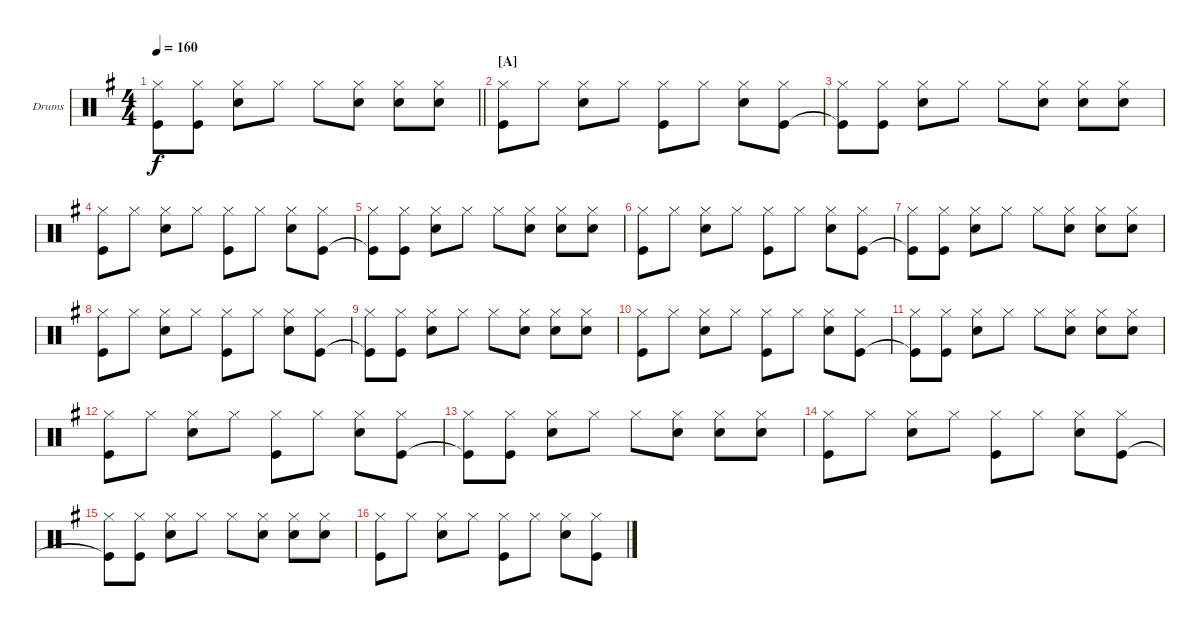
\bracketExtendMode groupsimilarinstruments
\firstSystemTrackNameOrientation horizontal
\otherSystemsTrackNameOrientation horizontal
\track ("Fabrizio Moretti" "Drums") {instrument percussion}
\staff {score}
\articulation defaults
\ts (4 4)
\tempo 160
\clef neutral
\barLineRight lightlight
\ks g
("Hi-Hat (closed)" "Kick (hit)"{t}).8{dy f} ("Hi-Hat (closed)" "Kick (hit)").8 ("Hi-Hat (closed)" "Snare (hit) 2").8 "Hi-Hat (closed)".8 "Hi-Hat (closed)".8 ("Hi-Hat (closed)" "Snare (hit) 2").8 ("Hi-Hat (closed)" "Snare (hit) 2").8 ("Hi-Hat (closed)" "Snare (hit) 2").8 |
\section ("A" "")
("Hi-Hat (closed)" "Kick (hit)").8 "Hi-Hat (closed)".8 ("Hi-Hat (closed)" "Snare (hit) 2").8 "Hi-Hat (closed)".8 ("Hi-Hat (closed)" "Kick (hit)").8 "Hi-Hat (closed)".8 ("Hi-Hat (closed)" "Snare (hit) 2").8 ("Hi-Hat (closed)" "Kick (hit)").8 |
("Hi-Hat (closed)" "Kick (hit)"{t}).8 ("Hi-Hat (closed)" "Kick (hit)").8 ("Hi-Hat (closed)" "Snare (hit) 2").8 "Hi-Hat (closed)".8 "Hi-Hat (closed)".8 ("Hi-Hat (closed)" "Snare (hit) 2").8 ("Hi-Hat (closed)" "Snare (hit) 2").8 ("Hi-Hat (closed)" "Snare (hit) 2").8 |
("Hi-Hat (closed)" "Kick (hit)").8 "Hi-Hat (closed)".8 ("Hi-Hat (closed)" "Snare (hit) 2").8 "Hi-Hat (closed)".8 ("Hi-Hat (closed)" "Kick (hit)").8 "Hi-Hat (closed)".8 ("Hi-Hat (closed)" "Snare (hit) 2").8 ("Hi-Hat (closed)" "Kick (hit)").8 |
("Hi-Hat (closed)" "Kick (hit)"{t}).8 ("Hi-Hat (closed)" "Kick (hit)").8 ("Hi-Hat (closed)" "Snare (hit) 2").8 "Hi-Hat (closed)".8 "Hi-Hat (closed)".8 ("Hi-Hat (closed)" "Snare (hit) 2").8 ("Hi-Hat (closed)" "Snare (hit) 2").8 ("Hi-Hat (closed)" "Snare (hit) 2").8 |
("Hi-Hat (closed)" "Kick (hit)").8 "Hi-Hat (closed)".8 ("Hi-Hat (closed)" "Snare (hit) 2").8 "Hi-Hat (closed)".8 ("Hi-Hat (closed)" "Kick (hit)").8 "Hi-Hat (closed)".8 ("Hi-Hat (closed)" "Snare (hit) 2").8 ("Hi-Hat (closed)" "Kick (hit)").8 |
("Hi-Hat (closed)" "Kick (hit)"{t}).8 ("Hi-Hat (closed)" "Kick (hit)").8 ("Hi-Hat (closed)" "Snare (hit) 2").8 "Hi-Hat (closed)".8 "Hi-Hat (closed)".8 ("Hi-Hat (closed)" "Snare (hit) 2").8 ("Hi-Hat (closed)" "Snare (hit) 2").8 ("Hi-Hat (closed)" "Snare (hit) 2").8 |
("Hi-Hat (closed)" "Kick (hit)").8 "Hi-Hat (closed)".8 ("Hi-Hat (closed)" "Snare (hit) 2").8 "Hi-Hat (closed)".8 ("Hi-Hat (closed)" "Kick (hit)").8 "Hi-Hat (closed)".8 ("Hi-Hat (closed)" "Snare (hit) 2").8 ("Hi-Hat (closed)" "Kick (hit)").8 |
("Hi-Hat (closed)" "Kick (hit)"{t}).8 ("Hi-Hat (closed)" "Kick (hit)").8 ("Hi-Hat (closed)" "Snare (hit) 2").8 "Hi-Hat (closed)".8 "Hi-Hat (closed)".8 ("Hi-Hat (closed)" "Snare (hit) 2").8 ("Hi-Hat (closed)" "Snare (hit) 2").8 ("Hi-Hat (closed)" "Snare (hit) 2").8 |
("Hi-Hat (closed)" "Kick (hit)").8 "Hi-Hat (closed)".8 ("Hi-Hat (closed)" "Snare (hit) 2").8 "Hi-Hat (closed)".8 ("Hi-Hat (closed)" "Kick (hit)").8 "Hi-Hat (closed)".8 ("Hi-Hat (closed)" "Snare (hit) 2").8 ("Hi-Hat (closed)" "Kick (hit)").8 |
("Hi-Hat (closed)" "Kick (hit)"{t}).8 ("Hi-Hat (closed)" "Kick (hit)").8 ("Hi-Hat (closed)" "Snare (hit) 2").8 "Hi-Hat (closed)".8 "Hi-Hat (closed)".8 ("Hi-Hat (closed)" "Snare (hit) 2").8 ("Hi-Hat (closed)" "Snare (hit) 2").8 ("Hi-Hat (closed)" "Snare (hit) 2").8 |
("Hi-Hat (closed)" "Kick (hit)").8 "Hi-Hat (closed)".8 ("Hi-Hat (closed)" "Snare (hit) 2").8 "Hi-Hat (closed)".8 ("Hi-Hat (closed)" "Kick (hit)").8 "Hi-Hat (closed)".8 ("Hi-Hat (closed)" "Snare (hit) 2").8 ("Hi-Hat (closed)" "Kick (hit)").8 |
("Hi-Hat (closed)" "Kick (hit)"{t}).8 ("Hi-Hat (closed)" "Kick (hit)").8 ("Hi-Hat (closed)" "Snare (hit) 2").8 "Hi-Hat (closed)".8 "Hi-Hat (closed)".8 ("Hi-Hat (closed)" "Snare (hit) 2").8 ("Hi-Hat (closed)" "Snare (hit) 2").8 ("Hi-Hat (closed)" "Snare (hit) 2").8 |
("Hi-Hat (closed)" "Kick (hit)").8 "Hi-Hat (closed)".8 ("Hi-Hat (closed)" "Snare (hit) 2").8 "Hi-Hat (closed)".8 ("Hi-Hat (closed)" "Kick (hit)").8 "Hi-Hat (closed)".8 ("Hi-Hat (closed)" "Snare (hit) 2").8 ("Hi-Hat (closed)" "Kick (hit)").8 |
("Hi-Hat (closed)" "Kick (hit)"{t}).8 ("Hi-Hat (closed)" "Kick (hit)").8 ("Hi-Hat (closed)" "Snare (hit) 2").8 "Hi-Hat (closed)".8 "Hi-Hat (closed)".8 ("Hi-Hat (closed)" "Snare (hit) 2").8 ("Hi-Hat (closed)" "Snare (hit) 2").8 ("Hi-Hat (closed)" "Snare (hit) 2").8 |
("Hi-Hat (closed)" "Kick (hit)").8 "Hi-Hat (closed)".8 ("Hi-Hat (closed)" "Snare (hit) 2").8 "Hi-Hat (closed)".8 ("Hi-Hat (closed)" "Kick (hit)").8 "Hi-Hat (closed)".8 ("Hi-Hat (closed)" "Snare (hit) 2").8 ("Hi-Hat (closed)" "Kick (hit)").8
